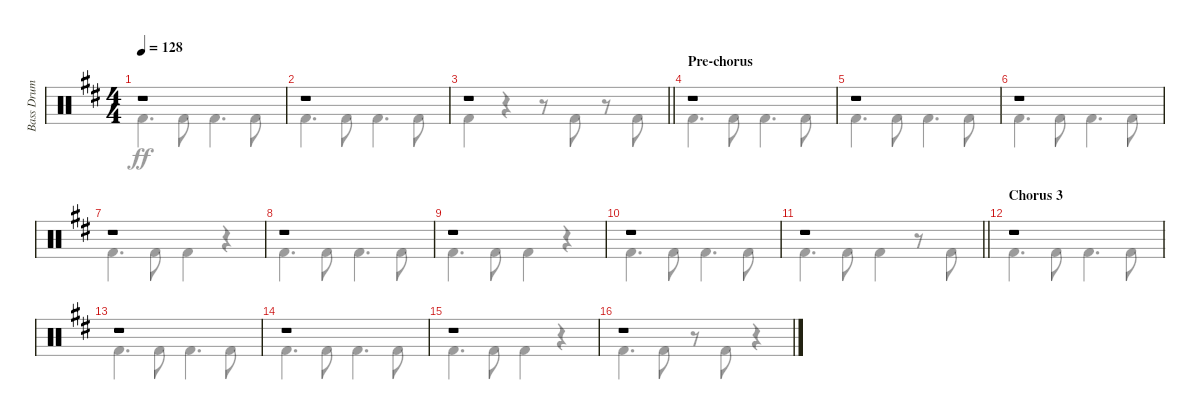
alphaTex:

\track ("Bass Drum" "Bass Drum") {instrument percussion}
\staff {score}
\articulation defaults
\voice
\ts (4 4)
\tempo 128
\clef neutral
\ks bminor
r.1{dy f} |
r.1 |
\barLineRight lightlight
r.1 |
\section ("" "Pre-chorus")
r.1 |
r.1 |
r.1 |
r.1 |
r.1 |
r.1 |
r.1 |
\barLineRight lightlight
r.1 |
\section ("" "Chorus 3")
r.1 |
r.1 |
r.1 |
r.1 |
r.1
\voice
\clef neutral
\ottava regular
\simile none
\ks bminor "Kick (hit) 2".4{d dy ff} "Kick (hit) 2".8 "Kick (hit) 2".4{d} "Kick (hit) 2".8
|
"Kick (hit) 2".4{d} "Kick (hit) 2".8 "Kick (hit) 2".4{d} "Kick (hit) 2".8 |
\barLineRight lightlight "Kick (hit) 2".4
r.4 r.8 "Kick (hit) 2".8 r.8 "Kick (hit) 2".8 |
"Kick (hit) 2".4{d} "Kick (hit) 2".8 "Kick (hit) 2".4{d} "Kick (hit) 2".8 |
"Kick (hit) 2".4{d} "Kick (hit) 2".8 "Kick (hit) 2".4{d} "Kick (hit) 2".8 |
"Kick (hit) 2".4{d} "Kick (hit) 2".8 "Kick (hit) 2".4{d} "Kick (hit) 2".8 |
"Kick (hit) 2".4{d} "Kick (hit) 2".8 "Kick (hit) 2".4 r.4 |
"Kick (hit) 2".4{d} "Kick (hit) 2".8 "Kick (hit) 2".4{d} "Kick (hit) 2".8 |
"Kick (hit) 2".4{d} "Kick (hit) 2".8 "Kick (hit) 2".4 r.4 |
"Kick (hit) 2".4{d} "Kick (hit) 2".8 "Kick (hit) 2".4{d} "Kick (hit) 2".8 |
\barLineRight lightlight "Kick (hit) 2".4{d} "Kick (hit) 2".8 "Kick (hit) 2".4
r.8 "Kick (hit) 2".8 |
"Kick (hit) 2".4{d} "Kick (hit) 2".8 "Kick (hit) 2".4{d} "Kick (hit) 2".8 |
"Kick (hit) 2".4{d} "Kick (hit) 2".8 "Kick (hit) 2".4{d} "Kick (hit) 2".8 |
"Kick (hit) 2".4{d} "Kick (hit) 2".8 "Kick (hit) 2".4{d} "Kick (hit) 2".8 |
"Kick (hit) 2".4{d} "Kick (hit) 2".8 "Kick (hit) 2".4 r.4 |
"Kick (hit) 2".4{d} "Kick (hit) 2".8 r.8 "Kick (hit) 2".8 r.4
